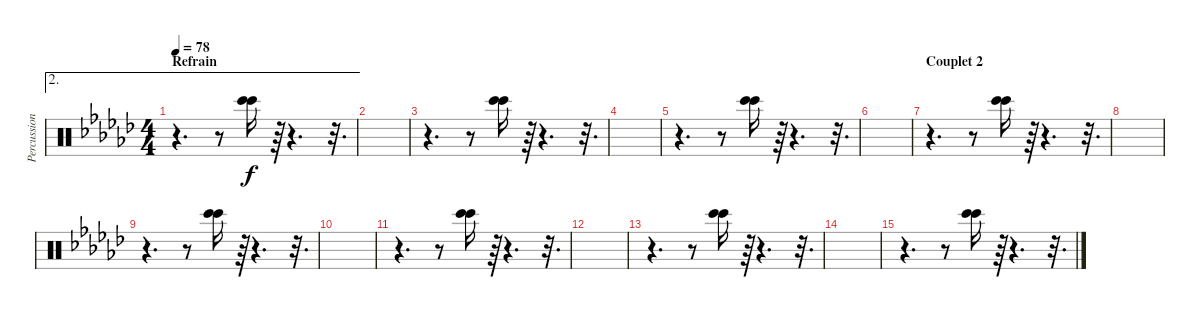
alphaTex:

\track ("Percussions" "Percussion") {instrument percussion}
\staff {score}
\articulation defaults
\ae 2
\ts (4 4)
\section ("" "Refrain")
\tempo 78
\clef neutral
\ks gb
r.4{d dy f} r.8 ("Bongo High (hit)" "Bongo High (hit)").16{bd 480} r.64 r.4{d} r.32{d} |
|
r.4{d} r.8 ("Bongo High (hit)" "Bongo High (hit)").16{bd 480} r.64 r.4{d} r.32{d} |
|
r.4{d} r.8 ("Bongo High (hit)" "Bongo High (hit)").16{bd 480} r.64 r.4{d} r.32{d} |
|
\section ("" "Couplet 2")
r.4{d} r.8 ("Bongo High (hit)" "Bongo High (hit)").16{bd 480} r.64 r.4{d} r.32{d} |
|
r.4{d} r.8 ("Bongo High (hit)" "Bongo High (hit)").16{bd 480} r.64 r.4{d} r.32{d} |
|
r.4{d} r.8 ("Bongo High (hit)" "Bongo High (hit)").16{bd 480} r.64 r.4{d} r.32{d} |
|
r.4{d} r.8 ("Bongo High (hit)" "Bongo High (hit)").16{bd 480} r.64 r.4{d} r.32{d} |
|
r.4{d} r.8 ("Bongo High (hit)" "Bongo High (hit)").16{bd 480} r.64 r.4{d} r.32{d}
